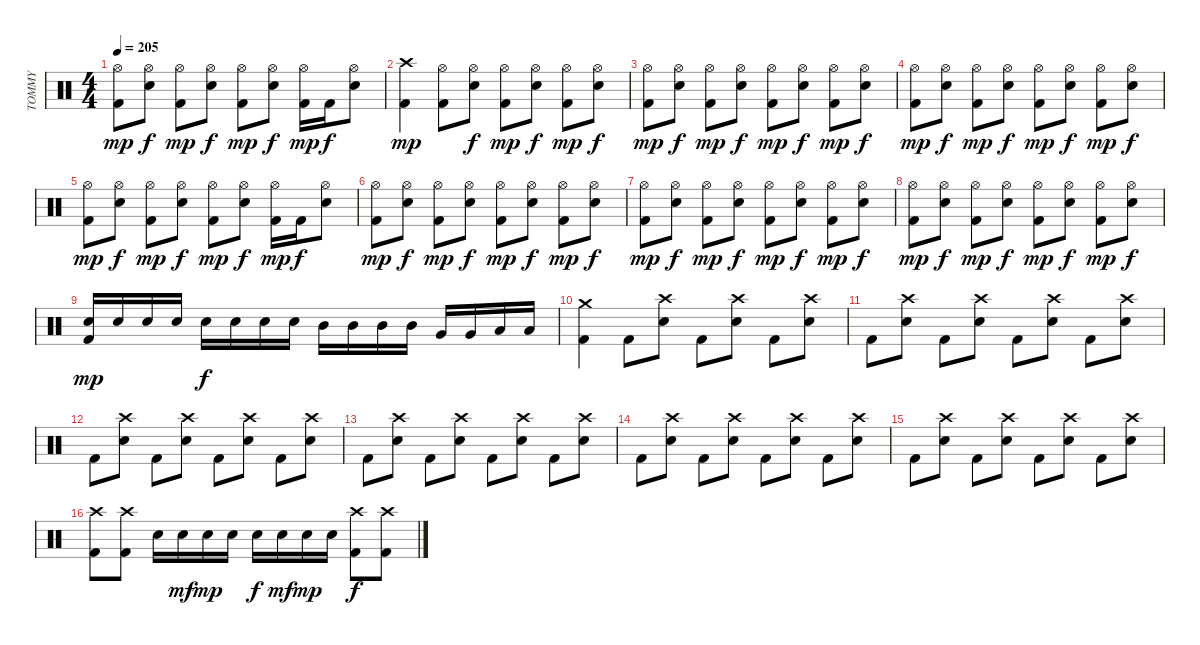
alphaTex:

\track ("TOMMY" "TOMMY") {instrument percussion}
\staff {score}
\articulation defaults
\ts (4 4)
\tempo 205
\clef neutral
\ks c
("Kick (hit) 2" "Hi-Hat (open)").8{dy mp} ("Snare (hit) 2" "Hi-Hat (open)").8{dy f} ("Kick (hit) 2" "Hi-Hat (open)").8{dy mp} ("Snare (hit) 2" "Hi-Hat (open)").8{dy f} ("Kick (hit) 2" "Hi-Hat (open)").8{dy mp} ("Snare (hit) 2" "Hi-Hat (open)").8{dy f} ("Kick (hit) 2" "Hi-Hat (open)").16{dy mp} "Kick (hit) 2".16{dy f} ("Snare (hit) 2" "Hi-Hat (open)").8 |
("Kick (hit) 2" "Crash high (hit)").4{dy mp} ("Kick (hit) 2" "Hi-Hat (open)").8 ("Snare (hit) 2" "Hi-Hat (open)").8{dy f} ("Kick (hit) 2" "Hi-Hat (open)").8{dy mp} ("Snare (hit) 2" "Hi-Hat (open)").8{dy f} ("Kick (hit) 2" "Hi-Hat (open)").8{dy mp} ("Snare (hit) 2" "Hi-Hat (open)").8{dy f} |
("Kick (hit) 2" "Hi-Hat (open)").8{dy mp} ("Snare (hit) 2" "Hi-Hat (open)").8{dy f} ("Kick (hit) 2" "Hi-Hat (open)").8{dy mp} ("Snare (hit) 2" "Hi-Hat (open)").8{dy f} ("Kick (hit) 2" "Hi-Hat (open)").8{dy mp} ("Snare (hit) 2" "Hi-Hat (open)").8{dy f} ("Kick (hit) 2" "Hi-Hat (open)").8{dy mp} ("Snare (hit) 2" "Hi-Hat (open)").8{dy f} |
("Kick (hit) 2" "Hi-Hat (open)").8{dy mp} ("Snare (hit) 2" "Hi-Hat (open)").8{dy f} ("Kick (hit) 2" "Hi-Hat (open)").8{dy mp} ("Snare (hit) 2" "Hi-Hat (open)").8{dy f} ("Kick (hit) 2" "Hi-Hat (open)").8{dy mp} ("Snare (hit) 2" "Hi-Hat (open)").8{dy f} ("Kick (hit) 2" "Hi-Hat (open)").8{dy mp} ("Snare (hit) 2" "Hi-Hat (open)").8{dy f} |
("Kick (hit) 2" "Hi-Hat (open)").8{dy mp} ("Snare (hit) 2" "Hi-Hat (open)").8{dy f} ("Kick (hit) 2" "Hi-Hat (open)").8{dy mp} ("Snare (hit) 2" "Hi-Hat (open)").8{dy f} ("Kick (hit) 2" "Hi-Hat (open)").8{dy mp} ("Snare (hit) 2" "Hi-Hat (open)").8{dy f} ("Kick (hit) 2" "Hi-Hat (open)").16{dy mp} "Kick (hit) 2".16{dy f} ("Snare (hit) 2" "Hi-Hat (open)").8 |
("Kick (hit) 2" "Hi-Hat (open)").8{dy mp} ("Snare (hit) 2" "Hi-Hat (open)").8{dy f} ("Kick (hit) 2" "Hi-Hat (open)").8{dy mp} ("Snare (hit) 2" "Hi-Hat (open)").8{dy f} ("Kick (hit) 2" "Hi-Hat (open)").8{dy mp} ("Snare (hit) 2" "Hi-Hat (open)").8{dy f} ("Kick (hit) 2" "Hi-Hat (open)").8{dy mp} ("Snare (hit) 2" "Hi-Hat (open)").8{dy f} |
("Kick (hit) 2" "Hi-Hat (open)").8{dy mp} ("Snare (hit) 2" "Hi-Hat (open)").8{dy f} ("Kick (hit) 2" "Hi-Hat (open)").8{dy mp} ("Snare (hit) 2" "Hi-Hat (open)").8{dy f} ("Kick (hit) 2" "Hi-Hat (open)").8{dy mp} ("Snare (hit) 2" "Hi-Hat (open)").8{dy f} ("Kick (hit) 2" "Hi-Hat (open)").8{dy mp} ("Snare (hit) 2" "Hi-Hat (open)").8{dy f} |
("Kick (hit) 2" "Hi-Hat (open)").8{dy mp} ("Snare (hit) 2" "Hi-Hat (open)").8{dy f} ("Kick (hit) 2" "Hi-Hat (open)").8{dy mp} ("Snare (hit) 2" "Hi-Hat (open)").8{dy f} ("Kick (hit) 2" "Hi-Hat (open)").8{dy mp} ("Snare (hit) 2" "Hi-Hat (open)").8{dy f} ("Kick (hit) 2" "Hi-Hat (open)").8{dy mp} ("Snare (hit) 2" "Hi-Hat (open)").8{dy f} |
("Snare (hit) 2" "Kick (hit) 2").16{dy mp} "Snare (hit) 2".16 "Snare (hit) 2".16 "Snare (hit) 2".16 "Snare (hit) 2".16{dy f} "Snare (hit) 2".16 "Snare (hit) 2".16 "Snare (hit) 2".16 "Mid Tom (hit)".16 "Mid Tom (hit)".16 "Mid Tom (hit)".16 "Mid Tom (hit)".16 "Very Low Tom (hit)".16 "Very Low Tom (hit)".16 "Low Floor Tom (hit)".16 "Low Floor Tom (hit)".16 |
("Kick (hit) 2" "Crash medium (hit)").4 "Kick (hit) 2".8 ("Snare (hit) 2" "Crash high (hit)").8 "Kick (hit) 2".8 ("Snare (hit) 2" "Crash high (hit)").8 "Kick (hit) 2".8 ("Snare (hit) 2" "Crash high (hit)").8 |
"Kick (hit) 2".8 ("Snare (hit) 2" "Crash high (hit)").8 "Kick (hit) 2".8 ("Snare (hit) 2" "Crash high (hit)").8 "Kick (hit) 2".8 ("Snare (hit) 2" "Crash high (hit)").8 "Kick (hit) 2".8 ("Snare (hit) 2" "Crash high (hit)").8 |
"Kick (hit) 2".8 ("Snare (hit) 2" "Crash high (hit)").8 "Kick (hit) 2".8 ("Snare (hit) 2" "Crash high (hit)").8 "Kick (hit) 2".8 ("Snare (hit) 2" "Crash high (hit)").8 "Kick (hit) 2".8 ("Snare (hit) 2" "Crash high (hit)").8 |
"Kick (hit) 2".8 ("Snare (hit) 2" "Crash high (hit)").8 "Kick (hit) 2".8 ("Snare (hit) 2" "Crash high (hit)").8 "Kick (hit) 2".8 ("Snare (hit) 2" "Crash high (hit)").8 "Kick (hit) 2".8 ("Snare (hit) 2" "Crash high (hit)").8 |
"Kick (hit) 2".8 ("Snare (hit) 2" "Crash high (hit)").8 "Kick (hit) 2".8 ("Snare (hit) 2" "Crash high (hit)").8 "Kick (hit) 2".8 ("Snare (hit) 2" "Crash high (hit)").8 "Kick (hit) 2".8 ("Snare (hit) 2" "Crash high (hit)").8 |
"Kick (hit) 2".8 ("Snare (hit) 2" "Crash high (hit)").8 "Kick (hit) 2".8 ("Snare (hit) 2" "Crash high (hit)").8 "Kick (hit) 2".8 ("Snare (hit) 2" "Crash high (hit)").8 "Kick (hit) 2".8 ("Snare (hit) 2" "Crash high (hit)").8 |
("Kick (hit) 2" "Crash high (hit)").8 ("Kick (hit) 2" "Crash high (hit)").8 "Snare (hit) 2".16 "Snare (hit) 2".16{dy mf} "Snare (hit) 2".16{dy mp} "Snare (hit) 2".16 "Snare (hit) 2".16{dy f} "Snare (hit) 2".16{dy mf} "Snare (hit) 2".16{dy mp} "Snare (hit) 2".16 ("Kick (hit) 2" "Crash high (hit)").8{dy f} ("Kick (hit) 2" "Crash high (hit)").8
